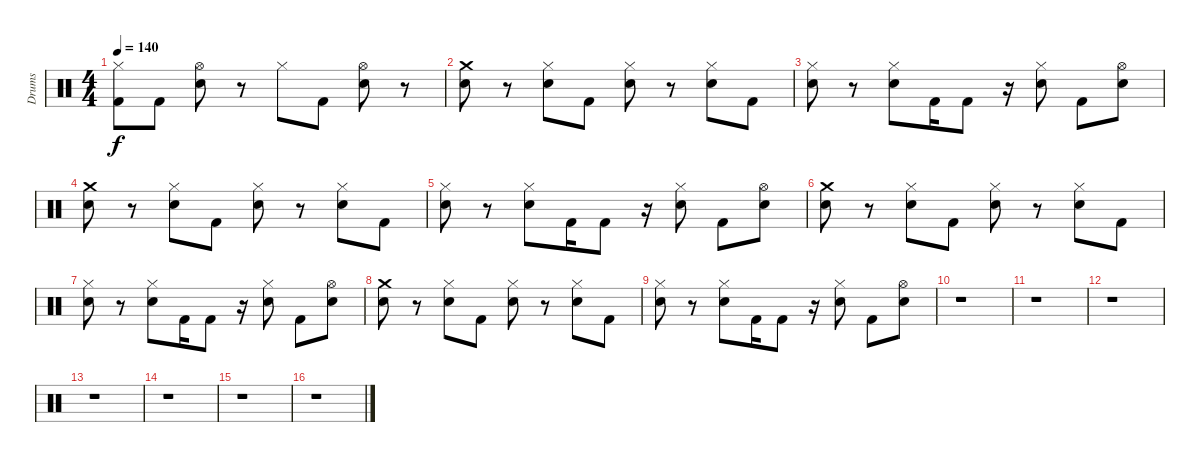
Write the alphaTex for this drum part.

\track ("Drums" "Drums") {instrument percussion}
\staff {score}
\articulation defaults
\ts (4 4)
\tempo 140
\clef neutral
\ks c
("Kick (hit) 2" "Hi-Hat (closed)").8{dy f} "Kick (hit) 2".8 ("Electric Snare (hit)" "Hi-Hat (open)").8 r.8 "Hi-Hat (closed)".8 "Kick (hit) 2".8 ("Electric Snare (hit)" "Hi-Hat (open)").8 r.8 |
("Electric Snare (hit)" "Crash medium (hit)").8 r.8 ("Electric Snare (hit)" "Hi-Hat (closed)").8 "Kick (hit) 2".8 ("Electric Snare (hit)" "Hi-Hat (closed)").8 r.8 ("Electric Snare (hit)" "Hi-Hat (closed)").8 "Kick (hit) 2".8 |
("Electric Snare (hit)" "Hi-Hat (closed)").8 r.8 ("Electric Snare (hit)" "Hi-Hat (closed)").8 "Kick (hit) 2".16 "Kick (hit) 2".8 r.16 ("Electric Snare (hit)" "Hi-Hat (closed)").8 "Kick (hit) 2".8 ("Electric Snare (hit)" "Hi-Hat (open)").8 |
("Electric Snare (hit)" "Crash medium (hit)").8 r.8 ("Electric Snare (hit)" "Hi-Hat (closed)").8 "Kick (hit) 2".8 ("Electric Snare (hit)" "Hi-Hat (closed)").8 r.8 ("Electric Snare (hit)" "Hi-Hat (closed)").8 "Kick (hit) 2".8 |
("Electric Snare (hit)" "Hi-Hat (closed)").8 r.8 ("Electric Snare (hit)" "Hi-Hat (closed)").8 "Kick (hit) 2".16 "Kick (hit) 2".8 r.16 ("Electric Snare (hit)" "Hi-Hat (closed)").8 "Kick (hit) 2".8 ("Electric Snare (hit)" "Hi-Hat (open)").8 |
("Electric Snare (hit)" "Crash medium (hit)").8 r.8 ("Electric Snare (hit)" "Hi-Hat (closed)").8 "Kick (hit) 2".8 ("Electric Snare (hit)" "Hi-Hat (closed)").8 r.8 ("Electric Snare (hit)" "Hi-Hat (closed)").8 "Kick (hit) 2".8 |
("Electric Snare (hit)" "Hi-Hat (closed)").8 r.8 ("Electric Snare (hit)" "Hi-Hat (closed)").8 "Kick (hit) 2".16 "Kick (hit) 2".8 r.16 ("Electric Snare (hit)" "Hi-Hat (closed)").8 "Kick (hit) 2".8 ("Electric Snare (hit)" "Hi-Hat (open)").8 |
("Electric Snare (hit)" "Crash medium (hit)").8 r.8 ("Electric Snare (hit)" "Hi-Hat (closed)").8 "Kick (hit) 2".8 ("Electric Snare (hit)" "Hi-Hat (closed)").8 r.8 ("Electric Snare (hit)" "Hi-Hat (closed)").8 "Kick (hit) 2".8 |
("Electric Snare (hit)" "Hi-Hat (closed)").8 r.8 ("Electric Snare (hit)" "Hi-Hat (closed)").8 "Kick (hit) 2".16 "Kick (hit) 2".8 r.16 ("Electric Snare (hit)" "Hi-Hat (closed)").8 "Kick (hit) 2".8 ("Electric Snare (hit)" "Hi-Hat (open)").8 |
r.1 |
r.1 |
r.1 |
r.1 |
r.1 |
r.1 |
r.1
